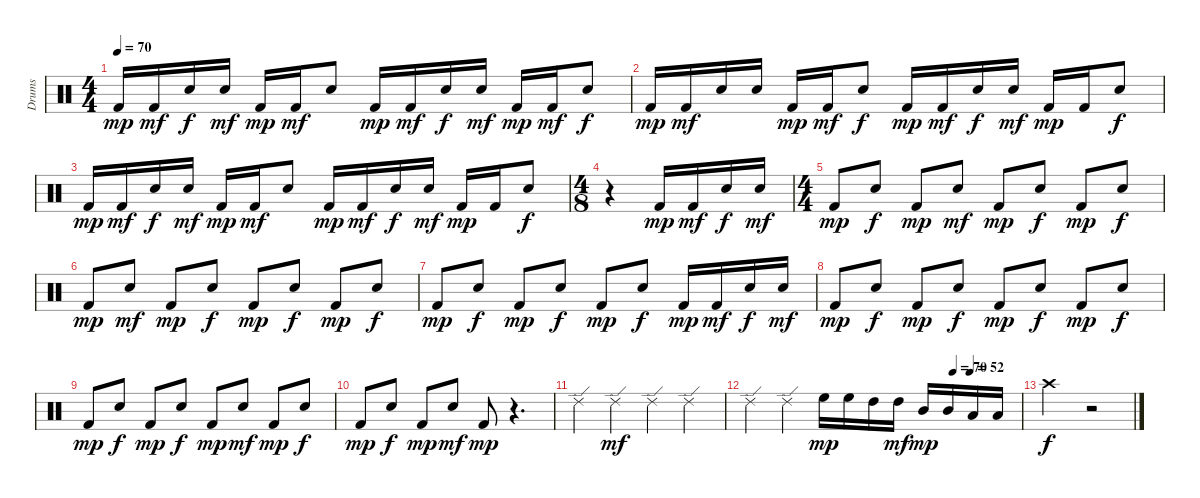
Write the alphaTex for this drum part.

\track ("Drums" "Drums") {instrument percussion}
\staff {score}
\articulation defaults
\ts (4 4)
\tempo 70
\clef neutral
\ks c "Kick (hit) 2".16{dy mp} "Kick (hit) 2".16{dy mf} "Snare (hit) 2".16{dy f} "Snare (hit) 2".16{dy mf} "Kick (hit) 2".16{dy mp} "Kick (hit) 2".16{dy mf} "Snare (hit) 2".8 "Kick (hit) 2".16{dy mp} "Kick (hit) 2".16{dy mf} "Snare (hit) 2".16{dy f} "Snare (hit) 2".16{dy mf} "Kick (hit) 2".16{dy mp} "Kick (hit) 2".16{dy mf} "Snare (hit) 2".8{dy f}
|
"Kick (hit) 2".16{dy mp} "Kick (hit) 2".16{dy mf} "Snare (hit) 2".16 "Snare (hit) 2".16 "Kick (hit) 2".16{dy mp} "Kick (hit) 2".16{dy mf} "Snare (hit) 2".8{dy f} "Kick (hit) 2".16{dy mp} "Kick (hit) 2".16{dy mf} "Snare (hit) 2".16{dy f} "Snare (hit) 2".16{dy mf} "Kick (hit) 2".16{dy mp} "Kick (hit) 2".16 "Snare (hit) 2".8{dy f} |
"Kick (hit) 2".16{dy mp} "Kick (hit) 2".16{dy mf} "Snare (hit) 2".16{dy f} "Snare (hit) 2".16{dy mf} "Kick (hit) 2".16{dy mp} "Kick (hit) 2".16{dy mf} "Snare (hit) 2".8 "Kick (hit) 2".16{dy mp} "Kick (hit) 2".16{dy mf} "Snare (hit) 2".16{dy f} "Snare (hit) 2".16{dy mf} "Kick (hit) 2".16{dy mp} "Kick (hit) 2".16 "Snare (hit) 2".8{dy f} |
\ts (4 8)
r.4 "Kick (hit) 2".16{dy mp} "Kick (hit) 2".16{dy mf} "Snare (hit) 2".16{dy f} "Snare (hit) 2".16{dy mf} |
\ts (4 4)
"Kick (hit) 2".8{dy mp} "Snare (hit) 2".8{dy f} "Kick (hit) 2".8{dy mp} "Snare (hit) 2".8{dy mf} "Kick (hit) 2".8{dy mp} "Snare (hit) 2".8{dy f} "Kick (hit) 2".8{dy mp} "Snare (hit) 2".8{dy f} |
"Kick (hit) 2".8{dy mp} "Snare (hit) 2".8{dy mf} "Kick (hit) 2".8{dy mp} "Snare (hit) 2".8{dy f} "Kick (hit) 2".8{dy mp} "Snare (hit) 2".8{dy f} "Kick (hit) 2".8{dy mp} "Snare (hit) 2".8{dy f} |
"Kick (hit) 2".8{dy mp} "Snare (hit) 2".8{dy f} "Kick (hit) 2".8{dy mp} "Snare (hit) 2".8{dy f} "Kick (hit) 2".8{dy mp} "Snare (hit) 2".8{dy f} "Kick (hit) 2".16{dy mp} "Kick (hit) 2".16{dy mf} "Snare (hit) 2".16{dy f} "Snare (hit) 2".16{dy mf} |
"Kick (hit) 2".8{dy mp} "Snare (hit) 2".8{dy f} "Kick (hit) 2".8{dy mp} "Snare (hit) 2".8{dy f} "Kick (hit) 2".8{dy mp} "Snare (hit) 2".8{dy f} "Kick (hit) 2".8{dy mp} "Snare (hit) 2".8{dy f} |
"Kick (hit) 2".8{dy mp} "Snare (hit) 2".8{dy f} "Kick (hit) 2".8{dy mp} "Snare (hit) 2".8{dy f} "Kick (hit) 2".8{dy mp} "Snare (hit) 2".8{dy mf} "Kick (hit) 2".8{dy mp} "Snare (hit) 2".8{dy f} |
"Kick (hit) 2".8{dy mp} "Snare (hit) 2".8{dy f} "Kick (hit) 2".8{dy mp} "Snare (hit) 2".8{dy mf} "Kick (hit) 2".8{dy mp} r.4{d} |
"Ride (edge) 2".4 "Ride (edge) 2".4{dy mf} "Ride (edge) 2".4 "Ride (edge) 2".4 |
\tempo (70 0.75)
\tempo (52 0.8125)
"Ride (edge) 2".4 "Ride (edge) 2".4 "High Floor Tom (hit)".16{dy mp} "High Floor Tom (hit)".16 "High Tom (hit)".16 "High Tom (hit)".16{dy mf} "Mid Tom (hit)".16{dy mp} "Mid Tom (hit)".16 "Low Tom (hit)".16 "Low Tom (hit)".16 |
"Crash high (hit)".2{dy f} r.2
